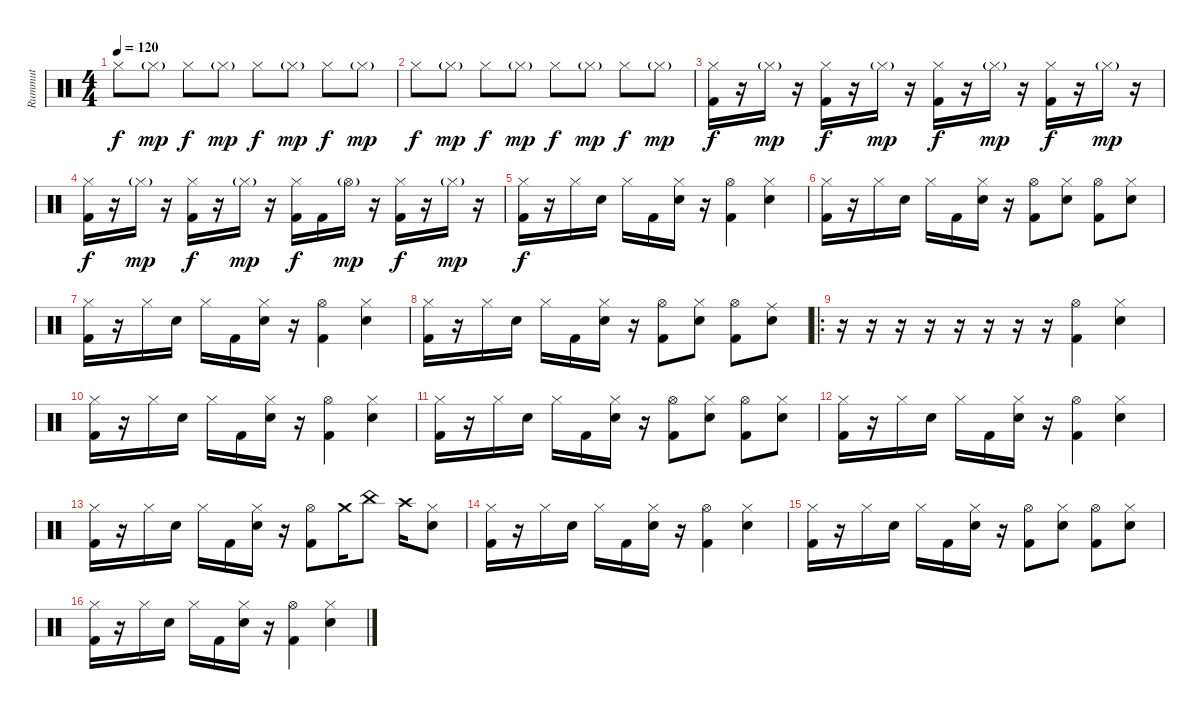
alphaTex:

\track ("Rummut" "Rummut") {instrument percussion}
\staff {score}
\articulation defaults
\ts (4 4)
\tempo 120
\clef neutral
\ks c "Hi-Hat (closed)".8{dy f} "Hi-Hat (closed)"{g}.8{dy mp} "Hi-Hat (closed)".8{dy f} "Hi-Hat (closed)"{g}.8{dy mp} "Hi-Hat (closed)".8{dy f} "Hi-Hat (closed)"{g}.8{dy mp} "Hi-Hat (closed)".8{dy f} "Hi-Hat (closed)"{g}.8{dy mp}
|
"Hi-Hat (closed)".8{dy f} "Hi-Hat (closed)"{g}.8{dy mp} "Hi-Hat (closed)".8{dy f} "Hi-Hat (closed)"{g}.8{dy mp} "Hi-Hat (closed)".8{dy f} "Hi-Hat (closed)"{g}.8{dy mp} "Hi-Hat (closed)".8{dy f} "Hi-Hat (closed)"{g}.8{dy mp} |
("Hi-Hat (closed)" "Kick (hit) 2").16{dy f} r.16 "Hi-Hat (closed)"{g}.16{dy mp} r.16 ("Hi-Hat (closed)" "Kick (hit) 2").16{dy f} r.16 "Hi-Hat (closed)"{g}.16{dy mp} r.16 ("Hi-Hat (closed)" "Kick (hit) 2").16{dy f} r.16 "Hi-Hat (closed)"{g}.16{dy mp} r.16 ("Hi-Hat (closed)" "Kick (hit) 2").16{dy f} r.16 "Hi-Hat (closed)"{g}.16{dy mp} r.16 |
("Hi-Hat (closed)" "Kick (hit) 2").16{dy f} r.16 "Hi-Hat (closed)"{g}.16{dy mp} r.16 ("Hi-Hat (closed)" "Kick (hit) 2").16{dy f} r.16 "Hi-Hat (closed)"{g}.16{dy mp} r.16 ("Hi-Hat (closed)" "Kick (hit) 2").16{dy f} "Kick (hit) 2".16 "Hi-Hat (open)"{g}.16{dy mp} r.16 ("Hi-Hat (closed)" "Kick (hit) 2").16{dy f} r.16 "Hi-Hat (closed)"{g}.16{dy mp} r.16 |
("Hi-Hat (closed)" "Kick (hit) 2").16{dy f} r.16 "Hi-Hat (closed)".16 "Snare (hit) 2".16 "Hi-Hat (closed)".16 "Kick (hit) 2".16 ("Hi-Hat (closed)" "Snare (hit) 2").16 r.16 ("Hi-Hat (open)" "Kick (hit) 2").4 ("Hi-Hat (closed)" "Snare (hit) 2").4 |
("Hi-Hat (closed)" "Kick (hit) 2").16 r.16 "Hi-Hat (closed)".16 "Snare (hit) 2".16 "Hi-Hat (closed)".16 "Kick (hit) 2".16 ("Hi-Hat (closed)" "Snare (hit) 2").16 r.16 ("Hi-Hat (open)" "Kick (hit) 2").8 ("Hi-Hat (closed)" "Snare (hit) 2").8 ("Hi-Hat (open)" "Kick (hit) 2").8 ("Hi-Hat (closed)" "Snare (hit) 2").8 |
("Hi-Hat (closed)" "Kick (hit) 2").16 r.16 "Hi-Hat (closed)".16 "Snare (hit) 2".16 "Hi-Hat (closed)".16 "Kick (hit) 2".16 ("Hi-Hat (closed)" "Snare (hit) 2").16 r.16 ("Hi-Hat (open)" "Kick (hit) 2").4 ("Hi-Hat (closed)" "Snare (hit) 2").4 |
("Hi-Hat (closed)" "Kick (hit) 2").16 r.16 "Hi-Hat (closed)".16 "Snare (hit) 2".16 "Hi-Hat (closed)".16 "Kick (hit) 2".16 ("Hi-Hat (closed)" "Snare (hit) 2").16 r.16 ("Hi-Hat (open)" "Kick (hit) 2").8 ("Hi-Hat (closed)" "Snare (hit) 2").8 ("Hi-Hat (open)" "Kick (hit) 2").8 ("Ride (middle)" "Snare (hit) 2").8 |
\ro
r.16 r.16 r.16 r.16 r.16 r.16 r.16 r.16 ("Hi-Hat (open)" "Kick (hit) 2").4 ("Hi-Hat (closed)" "Snare (hit) 2").4 |
("Hi-Hat (closed)" "Kick (hit) 2").16 r.16 "Hi-Hat (closed)".16 "Snare (hit) 2".16 "Hi-Hat (closed)".16 "Kick (hit) 2".16 ("Hi-Hat (closed)" "Snare (hit) 2").16 r.16 ("Hi-Hat (open)" "Kick (hit) 2").4 ("Hi-Hat (closed)" "Snare (hit) 2").4 |
("Hi-Hat (closed)" "Kick (hit) 2").16 r.16 "Hi-Hat (closed)".16 "Snare (hit) 2".16 "Hi-Hat (closed)".16 "Kick (hit) 2".16 ("Hi-Hat (closed)" "Snare (hit) 2").16 r.16 ("Hi-Hat (open)" "Kick (hit) 2").8 ("Hi-Hat (closed)" "Snare (hit) 2").8 ("Hi-Hat (open)" "Kick (hit) 2").8 ("Hi-Hat (closed)" "Snare (hit) 2").8 |
("Hi-Hat (closed)" "Kick (hit) 2").16 r.16 "Hi-Hat (closed)".16 "Snare (hit) 2".16 "Hi-Hat (closed)".16 "Kick (hit) 2".16 ("Hi-Hat (closed)" "Snare (hit) 2").16 r.16 ("Hi-Hat (open)" "Kick (hit) 2").4 ("Hi-Hat (closed)" "Snare (hit) 2").4 |
("Hi-Hat (closed)" "Kick (hit) 2").16 r.16 "Hi-Hat (closed)".16 "Snare (hit) 2".16 "Hi-Hat (closed)".16 "Kick (hit) 2".16 ("Hi-Hat (closed)" "Snare (hit) 2").16 r.16 ("Hi-Hat (open)" "Kick (hit) 2").8 "Crash medium (hit)".16 "China (hit)".8 "Crash high (hit)".16 ("Hi-Hat (closed)" "Snare (hit) 2").8 |
("Hi-Hat (closed)" "Kick (hit) 2").16 r.16 "Hi-Hat (closed)".16 "Snare (hit) 2".16 "Hi-Hat (closed)".16 "Kick (hit) 2".16 ("Hi-Hat (closed)" "Snare (hit) 2").16 r.16 ("Hi-Hat (open)" "Kick (hit) 2").4 ("Hi-Hat (closed)" "Snare (hit) 2").4 |
("Hi-Hat (closed)" "Kick (hit) 2").16 r.16 "Hi-Hat (closed)".16 "Snare (hit) 2".16 "Hi-Hat (closed)".16 "Kick (hit) 2".16 ("Hi-Hat (closed)" "Snare (hit) 2").16 r.16 ("Hi-Hat (open)" "Kick (hit) 2").8 ("Hi-Hat (closed)" "Snare (hit) 2").8 ("Hi-Hat (open)" "Kick (hit) 2").8 ("Hi-Hat (closed)" "Snare (hit) 2").8 |
("Hi-Hat (closed)" "Kick (hit) 2").16 r.16 "Hi-Hat (closed)".16 "Snare (hit) 2".16 "Hi-Hat (closed)".16 "Kick (hit) 2".16 ("Hi-Hat (closed)" "Snare (hit) 2").16 r.16 ("Hi-Hat (open)" "Kick (hit) 2").4 ("Hi-Hat (closed)" "Snare (hit) 2").4
